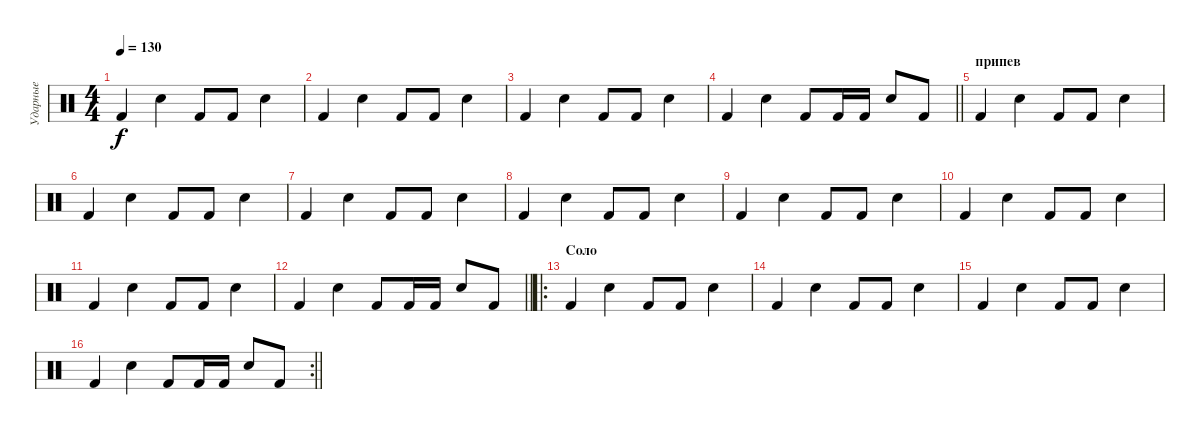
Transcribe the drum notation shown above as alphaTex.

\track ("Ударные" "Ударные") {instrument percussion}
\staff {score}
\articulation defaults
\ts (4 4)
\tempo 130
\clef neutral
\ks c "Kick (hit) 2".4{dy f} "Electric Snare (hit)".4 "Kick (hit) 2".8 "Kick (hit) 2".8 "Electric Snare (hit)".4
|
"Kick (hit) 2".4 "Electric Snare (hit)".4 "Kick (hit) 2".8 "Kick (hit) 2".8 "Electric Snare (hit)".4 |
"Kick (hit) 2".4 "Electric Snare (hit)".4 "Kick (hit) 2".8 "Kick (hit) 2".8 "Electric Snare (hit)".4 |
\barLineRight lightlight "Kick (hit) 2".4 "Electric Snare (hit)".4 "Kick (hit) 2".8 "Kick (hit) 2".16 "Kick (hit) 2".16 "Electric Snare (hit)".8 "Kick (hit) 2".8
|
\section ("" "припев")
"Kick (hit) 2".4 "Electric Snare (hit)".4 "Kick (hit) 2".8 "Kick (hit) 2".8 "Electric Snare (hit)".4 |
"Kick (hit) 2".4 "Electric Snare (hit)".4 "Kick (hit) 2".8 "Kick (hit) 2".8 "Electric Snare (hit)".4 |
"Kick (hit) 2".4 "Electric Snare (hit)".4 "Kick (hit) 2".8 "Kick (hit) 2".8 "Electric Snare (hit)".4 |
"Kick (hit) 2".4 "Electric Snare (hit)".4 "Kick (hit) 2".8 "Kick (hit) 2".8 "Electric Snare (hit)".4 |
"Kick (hit) 2".4 "Electric Snare (hit)".4 "Kick (hit) 2".8 "Kick (hit) 2".8 "Electric Snare (hit)".4 |
"Kick (hit) 2".4 "Electric Snare (hit)".4 "Kick (hit) 2".8 "Kick (hit) 2".8 "Electric Snare (hit)".4 |
"Kick (hit) 2".4 "Electric Snare (hit)".4 "Kick (hit) 2".8 "Kick (hit) 2".8 "Electric Snare (hit)".4 |
\barLineRight lightlight "Kick (hit) 2".4 "Electric Snare (hit)".4 "Kick (hit) 2".8 "Kick (hit) 2".16 "Kick (hit) 2".16 "Electric Snare (hit)".8 "Kick (hit) 2".8
|
\ro
\section ("" "Соло")
"Kick (hit) 2".4 "Electric Snare (hit)".4 "Kick (hit) 2".8 "Kick (hit) 2".8 "Electric Snare (hit)".4 |
"Kick (hit) 2".4 "Electric Snare (hit)".4 "Kick (hit) 2".8 "Kick (hit) 2".8 "Electric Snare (hit)".4 |
"Kick (hit) 2".4 "Electric Snare (hit)".4 "Kick (hit) 2".8 "Kick (hit) 2".8 "Electric Snare (hit)".4 |
\rc 2
\barLineRight lightlight "Kick (hit) 2".4 "Electric Snare (hit)".4 "Kick (hit) 2".8 "Kick (hit) 2".16 "Kick (hit) 2".16 "Electric Snare (hit)".8 "Kick (hit) 2".8
